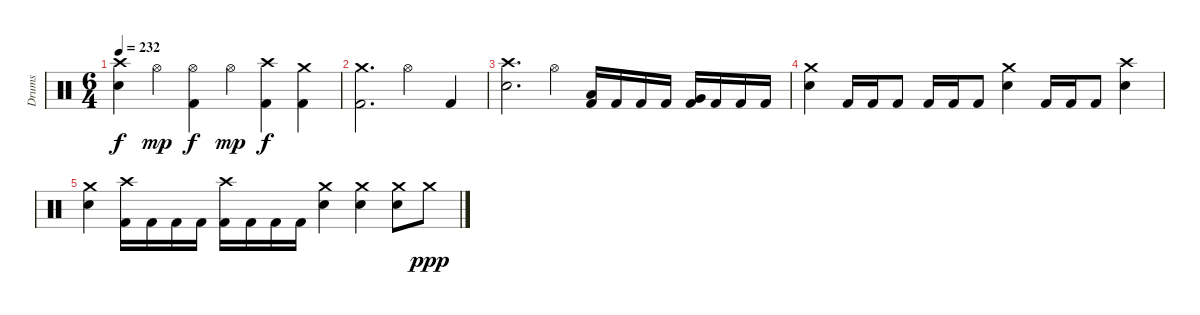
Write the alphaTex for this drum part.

\track ("Drums" "Drums") {instrument percussion}
\staff {score}
\articulation defaults
\ts (6 4)
\tempo 232
\clef neutral
\ks c
("Crash high (hit)" "Electric Snare (hit)").4{dy f} "Hi-Hat (open)".4{dy mp} ("Hi-Hat (open)" "Kick (hit) 2").4{dy f} "Hi-Hat (open)".4{dy mp} ("Kick (hit) 2" "Crash high (hit)").4{dy f} ("Kick (hit) 2" "Crash medium (hit)").4 |
("Kick (hit) 2" "Crash medium (hit)").2{d} "Hi-Hat (open)".2 "Kick (hit) 2".4 |
("Crash high (hit)" "Electric Snare (hit)").2{d} "Hi-Hat (open)".4 ("Kick (hit) 2" "Low Tom (hit)").16 "Kick (hit) 2".16 "Kick (hit) 2".16 "Kick (hit) 2".16 ("Kick (hit) 2" "Very Low Tom (hit)").16 "Kick (hit) 2".16 "Kick (hit) 2".16 "Kick (hit) 2".16 |
("Electric Snare (hit)" "Crash medium (hit)").4 "Kick (hit) 2".16 "Kick (hit) 2".16 "Kick (hit) 2".8 "Kick (hit) 2".16 "Kick (hit) 2".16 "Kick (hit) 2".8 ("Electric Snare (hit)" "Crash medium (hit)").4 "Kick (hit) 2".16 "Kick (hit) 2".16 "Kick (hit) 2".8 ("Electric Snare (hit)" "Crash high (hit)").4 |
("Electric Snare (hit)" "Crash medium (hit)").4 ("Crash high (hit)" "Kick (hit) 2").16 "Kick (hit) 2".16 "Kick (hit) 2".16 "Kick (hit) 2".16 ("Crash high (hit)" "Kick (hit) 2").16 "Kick (hit) 2".16 "Kick (hit) 2".16 "Kick (hit) 2".16 ("Crash medium (hit)" "Electric Snare (hit)").4 ("Crash medium (hit)" "Electric Snare (hit)").4 ("Crash medium (hit)" "Electric Snare (hit)").8 "Crash medium (hit)".8{dy ppp}
